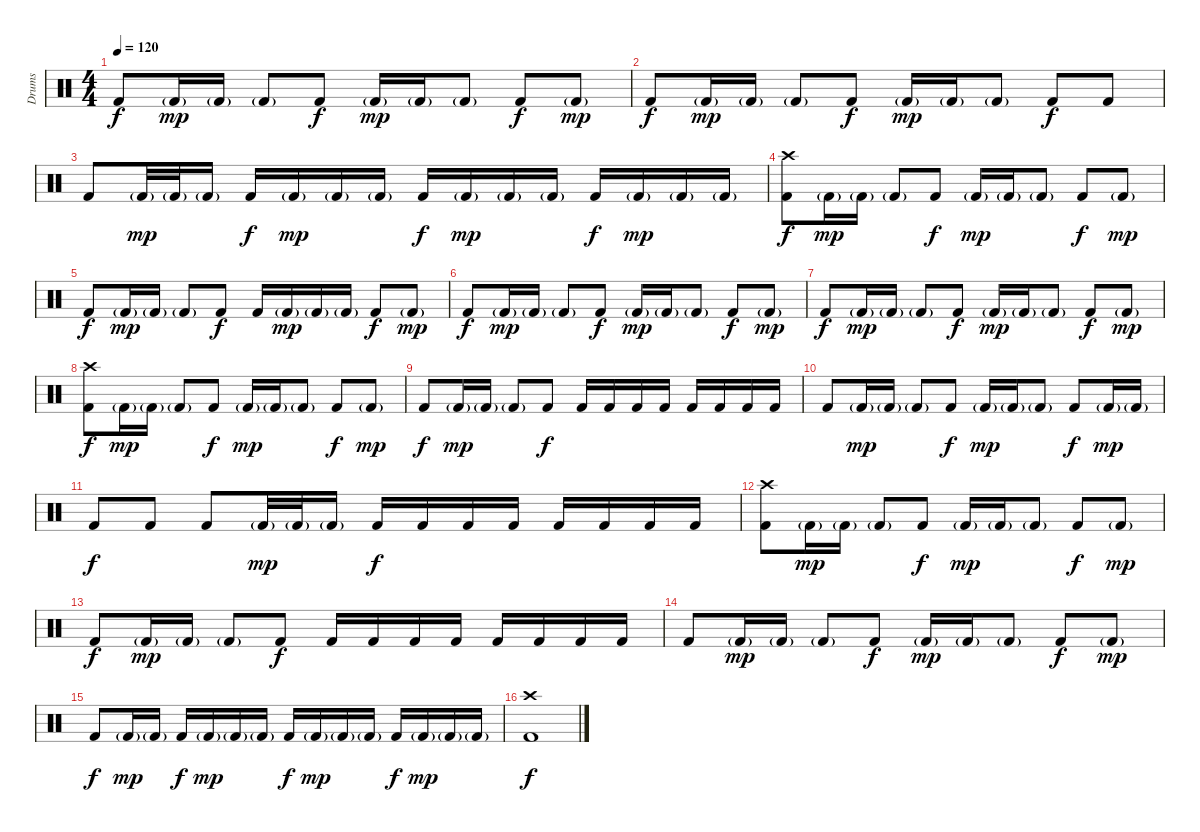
\track ("Drums" "Drums") {instrument percussion}
\staff {score}
\articulation defaults
\ts (4 4)
\tempo 120
\clef neutral
\ks c "Kick (hit) 2".8{dy f} "Kick (hit) 2"{g}.16{dy mp} "Kick (hit) 2"{g}.16 "Kick (hit) 2"{g}.8 "Kick (hit) 2".8{dy f} "Kick (hit) 2"{g}.16{dy mp} "Kick (hit) 2"{g}.16 "Kick (hit) 2"{g}.8 "Kick (hit) 2".8{dy f} "Kick (hit) 2"{g}.8{dy mp}
|
"Kick (hit) 2".8{dy f} "Kick (hit) 2"{g}.16{dy mp} "Kick (hit) 2"{g}.16 "Kick (hit) 2"{g}.8 "Kick (hit) 2".8{dy f} "Kick (hit) 2"{g}.16{dy mp} "Kick (hit) 2"{g}.16 "Kick (hit) 2"{g}.8 "Kick (hit) 2".8{dy f} "Kick (hit) 2".8 |
"Kick (hit) 2".8 "Kick (hit) 2"{g}.32{dy mp} "Kick (hit) 2"{g}.32 "Kick (hit) 2"{g}.16 "Kick (hit) 2".16{dy f} "Kick (hit) 2"{g}.16{dy mp} "Kick (hit) 2"{g}.16 "Kick (hit) 2"{g}.16 "Kick (hit) 2".16{dy f} "Kick (hit) 2"{g}.16{dy mp} "Kick (hit) 2"{g}.16 "Kick (hit) 2"{g}.16 "Kick (hit) 2".16{dy f} "Kick (hit) 2"{g}.16{dy mp} "Kick (hit) 2"{g}.16 "Kick (hit) 2"{g}.16 |
("Crash high (hit)" "Kick (hit) 2").8{dy f} "Kick (hit) 2"{g}.16{dy mp} "Kick (hit) 2"{g}.16 "Kick (hit) 2"{g}.8 "Kick (hit) 2".8{dy f} "Kick (hit) 2"{g}.16{dy mp} "Kick (hit) 2"{g}.16 "Kick (hit) 2"{g}.8 "Kick (hit) 2".8{dy f} "Kick (hit) 2"{g}.8{dy mp} |
"Kick (hit) 2".8{dy f} "Kick (hit) 2"{g}.16{dy mp} "Kick (hit) 2"{g}.16 "Kick (hit) 2"{g}.8 "Kick (hit) 2".8{dy f} "Kick (hit) 2".16 "Kick (hit) 2"{g}.16{dy mp} "Kick (hit) 2"{g}.16 "Kick (hit) 2"{g}.16 "Kick (hit) 2".8{dy f} "Kick (hit) 2"{g}.8{dy mp} |
"Kick (hit) 2".8{dy f} "Kick (hit) 2"{g}.16{dy mp} "Kick (hit) 2"{g}.16 "Kick (hit) 2"{g}.8 "Kick (hit) 2".8{dy f} "Kick (hit) 2"{g}.16{dy mp} "Kick (hit) 2"{g}.16 "Kick (hit) 2"{g}.8 "Kick (hit) 2".8{dy f} "Kick (hit) 2"{g}.8{dy mp} |
"Kick (hit) 2".8{dy f} "Kick (hit) 2"{g}.16{dy mp} "Kick (hit) 2"{g}.16 "Kick (hit) 2"{g}.8 "Kick (hit) 2".8{dy f} "Kick (hit) 2"{g}.16{dy mp} "Kick (hit) 2"{g}.16 "Kick (hit) 2"{g}.8 "Kick (hit) 2".8{dy f} "Kick (hit) 2"{g}.8{dy mp} |
("Crash high (hit)" "Kick (hit) 2").8{dy f} "Kick (hit) 2"{g}.16{dy mp} "Kick (hit) 2"{g}.16 "Kick (hit) 2"{g}.8 "Kick (hit) 2".8{dy f} "Kick (hit) 2"{g}.16{dy mp} "Kick (hit) 2"{g}.16 "Kick (hit) 2"{g}.8 "Kick (hit) 2".8{dy f} "Kick (hit) 2"{g}.8{dy mp} |
"Kick (hit) 2".8{dy f} "Kick (hit) 2"{g}.16{dy mp} "Kick (hit) 2"{g}.16 "Kick (hit) 2"{g}.8 "Kick (hit) 2".8{dy f} "Kick (hit) 2".16{balance 16} "Kick (hit) 2".16{balance 0} "Kick (hit) 2".16 "Kick (hit) 2".16 "Kick (hit) 2".16 "Kick (hit) 2".16 "Kick (hit) 2".16 "Kick (hit) 2".16 |
"Kick (hit) 2".8{balance 8} "Kick (hit) 2"{g}.16{dy mp} "Kick (hit) 2"{g}.16 "Kick (hit) 2"{g}.8 "Kick (hit) 2".8{dy f} "Kick (hit) 2"{g}.16{dy mp} "Kick (hit) 2"{g}.16 "Kick (hit) 2"{g}.8 "Kick (hit) 2".8{dy f} "Kick (hit) 2"{g}.16{dy mp} "Kick (hit) 2"{g}.16 |
"Kick (hit) 2".8{dy f} "Kick (hit) 2".8 "Kick (hit) 2".8 "Kick (hit) 2"{g}.32{dy mp} "Kick (hit) 2"{g}.32 "Kick (hit) 2"{g}.16 "Kick (hit) 2".16{dy f} "Kick (hit) 2".16 "Kick (hit) 2".16 "Kick (hit) 2".16 "Kick (hit) 2".16 "Kick (hit) 2".16 "Kick (hit) 2".16 "Kick (hit) 2".16 |
("Crash high (hit)" "Kick (hit) 2").8 "Kick (hit) 2"{g}.16{dy mp} "Kick (hit) 2"{g}.16 "Kick (hit) 2"{g}.8 "Kick (hit) 2".8{dy f} "Kick (hit) 2"{g}.16{dy mp} "Kick (hit) 2"{g}.16 "Kick (hit) 2"{g}.8 "Kick (hit) 2".8{dy f} "Kick (hit) 2"{g}.8{dy mp} |
"Kick (hit) 2".8{dy f} "Kick (hit) 2"{g}.16{dy mp} "Kick (hit) 2"{g}.16 "Kick (hit) 2"{g}.8 "Kick (hit) 2".8{dy f} "Kick (hit) 2".16{balance 16} "Kick (hit) 2".16{balance 0} "Kick (hit) 2".16 "Kick (hit) 2".16 "Kick (hit) 2".16 "Kick (hit) 2".16 "Kick (hit) 2".16 "Kick (hit) 2".16 |
"Kick (hit) 2".8{balance 8} "Kick (hit) 2"{g}.16{dy mp} "Kick (hit) 2"{g}.16 "Kick (hit) 2"{g}.8 "Kick (hit) 2".8{dy f} "Kick (hit) 2"{g}.16{dy mp} "Kick (hit) 2"{g}.16 "Kick (hit) 2"{g}.8 "Kick (hit) 2".8{dy f} "Kick (hit) 2"{g}.8{dy mp} |
"Kick (hit) 2".8{dy f} "Kick (hit) 2"{g}.16{dy mp} "Kick (hit) 2"{g}.16 "Kick (hit) 2".16{dy f} "Kick (hit) 2"{g}.16{dy mp} "Kick (hit) 2"{g}.16 "Kick (hit) 2"{g}.16 "Kick (hit) 2".16{dy f} "Kick (hit) 2"{g}.16{dy mp} "Kick (hit) 2"{g}.16 "Kick (hit) 2"{g}.16 "Kick (hit) 2".16{dy f} "Kick (hit) 2"{g}.16{dy mp} "Kick (hit) 2"{g}.16 "Kick (hit) 2"{g}.16 |
("Crash high (hit)" "Kick (hit) 2").1{dy f}
